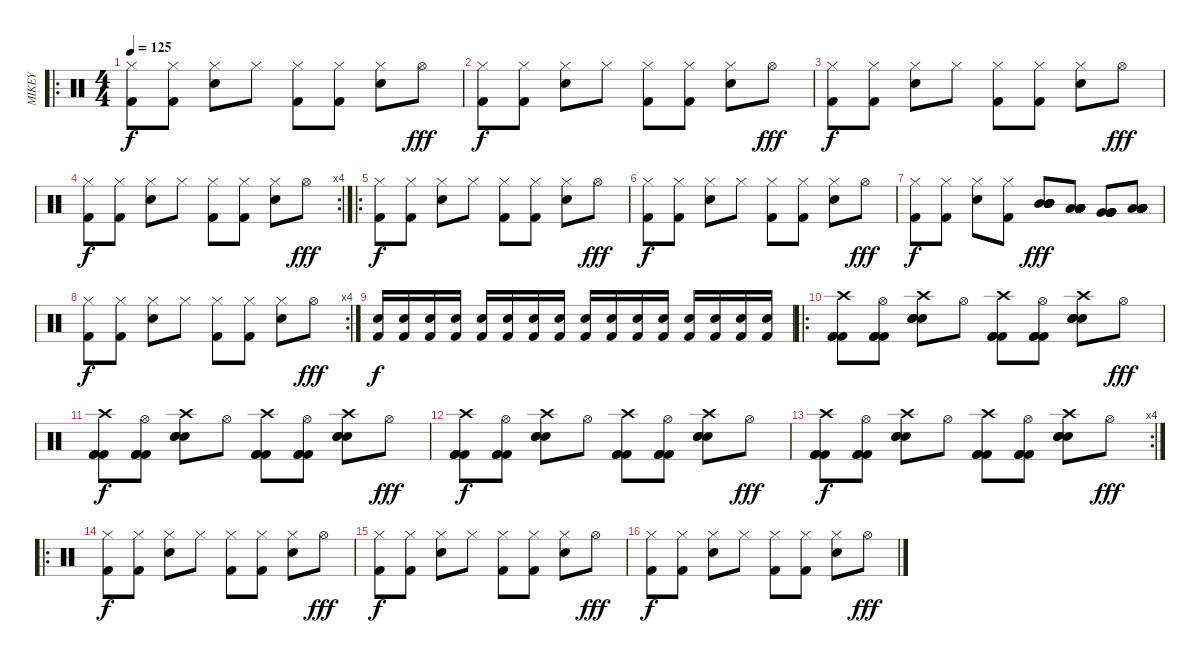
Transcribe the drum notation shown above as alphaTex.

\track ("MIKEY" "MIKEY") {instrument percussion}
\staff {score}
\articulation defaults
\ro
\ts (4 4)
\tempo 125
\clef neutral
\ks c
("Kick (hit) 2" "Hi-Hat (closed)").8{dy f} ("Kick (hit) 2" "Hi-Hat (closed)").8 ("Snare (hit) 2" "Hi-Hat (closed)").8 "Hi-Hat (closed)".8 ("Kick (hit) 2" "Hi-Hat (closed)").8 ("Kick (hit) 2" "Hi-Hat (closed)").8 ("Snare (hit) 2" "Hi-Hat (closed)").8 "Hi-Hat (open)".8{dy fff} |
("Kick (hit) 2" "Hi-Hat (closed)").8{dy f} ("Kick (hit) 2" "Hi-Hat (closed)").8 ("Snare (hit) 2" "Hi-Hat (closed)").8 "Hi-Hat (closed)".8 ("Kick (hit) 2" "Hi-Hat (closed)").8 ("Kick (hit) 2" "Hi-Hat (closed)").8 ("Snare (hit) 2" "Hi-Hat (closed)").8 "Hi-Hat (open)".8{dy fff} |
("Kick (hit) 2" "Hi-Hat (closed)").8{dy f} ("Kick (hit) 2" "Hi-Hat (closed)").8 ("Snare (hit) 2" "Hi-Hat (closed)").8 "Hi-Hat (closed)".8 ("Kick (hit) 2" "Hi-Hat (closed)").8 ("Kick (hit) 2" "Hi-Hat (closed)").8 ("Snare (hit) 2" "Hi-Hat (closed)").8 "Hi-Hat (open)".8{dy fff} |
\rc 4
("Kick (hit) 2" "Hi-Hat (closed)").8{dy f} ("Kick (hit) 2" "Hi-Hat (closed)").8 ("Snare (hit) 2" "Hi-Hat (closed)").8 "Hi-Hat (closed)".8 ("Kick (hit) 2" "Hi-Hat (closed)").8 ("Kick (hit) 2" "Hi-Hat (closed)").8 ("Snare (hit) 2" "Hi-Hat (closed)").8 "Hi-Hat (open)".8{dy fff} |
\ro
("Kick (hit) 2" "Hi-Hat (closed)").8{dy f} ("Kick (hit) 2" "Hi-Hat (closed)").8 ("Snare (hit) 2" "Hi-Hat (closed)").8 "Hi-Hat (closed)".8 ("Kick (hit) 2" "Hi-Hat (closed)").8 ("Kick (hit) 2" "Hi-Hat (closed)").8 ("Snare (hit) 2" "Hi-Hat (closed)").8 "Hi-Hat (open)".8{dy fff} |
("Kick (hit) 2" "Hi-Hat (closed)").8{dy f} ("Kick (hit) 2" "Hi-Hat (closed)").8 ("Snare (hit) 2" "Hi-Hat (closed)").8 "Hi-Hat (closed)".8 ("Kick (hit) 2" "Hi-Hat (closed)").8 ("Kick (hit) 2" "Hi-Hat (closed)").8 ("Snare (hit) 2" "Hi-Hat (closed)").8 "Hi-Hat (open)".8{dy fff} |
("Kick (hit) 2" "Hi-Hat (closed)").8{dy f} ("Kick (hit) 2" "Hi-Hat (closed)").8 ("Snare (hit) 2" "Hi-Hat (closed)").8 ("Kick (hit) 2" "Hi-Hat (closed)").8 ("Mid Tom (hit)" "Mid Tom (hit)" "Mid Tom (hit)" "Mid Tom (hit)" "Mid Tom (hit)" "Mid Tom (hit)").8{dy fff} ("Low Tom (hit)" "Low Tom (hit)" "Low Tom (hit)" "Low Tom (hit)" "Low Tom (hit)" "Low Tom (hit)").8 ("Very Low Tom (hit)" "Very Low Tom (hit)" "Very Low Tom (hit)" "Very Low Tom (hit)" "Very Low Tom (hit)" "Very Low Tom (hit)").8 ("Low Floor Tom (hit)" "Low Floor Tom (hit)" "Low Floor Tom (hit)" "Low Floor Tom (hit)" "Low Floor Tom (hit)" "Low Floor Tom (hit)").8 |
\rc 4
("Kick (hit) 2" "Hi-Hat (closed)").8{dy f} ("Kick (hit) 2" "Hi-Hat (closed)").8 ("Snare (hit) 2" "Hi-Hat (closed)").8 "Hi-Hat (closed)".8 ("Kick (hit) 2" "Hi-Hat (closed)").8 ("Kick (hit) 2" "Hi-Hat (closed)").8 ("Snare (hit) 2" "Hi-Hat (closed)").8 "Hi-Hat (open)".8{dy fff} |
("Kick (hit) 2" "Electric Snare (hit)").16{dy f} ("Kick (hit) 2" "Electric Snare (hit)").16 ("Kick (hit) 2" "Electric Snare (hit)").16 ("Kick (hit) 2" "Electric Snare (hit)").16 ("Kick (hit) 2" "Electric Snare (hit)").16 ("Kick (hit) 2" "Electric Snare (hit)").16 ("Kick (hit) 2" "Electric Snare (hit)").16 ("Kick (hit) 2" "Electric Snare (hit)").16 ("Kick (hit) 2" "Electric Snare (hit)").16 ("Kick (hit) 2" "Electric Snare (hit)").16 ("Kick (hit) 2" "Electric Snare (hit)").16 ("Kick (hit) 2" "Electric Snare (hit)").16 ("Kick (hit) 2" "Electric Snare (hit)").16 ("Kick (hit) 2" "Electric Snare (hit)").16 ("Kick (hit) 2" "Electric Snare (hit)").16 ("Kick (hit) 2" "Electric Snare (hit)").16 |
\ro
("Kick (hit) 2" "Kick (hit) 2" "Kick (hit) 2" "Crash high (hit)").8 ("Kick (hit) 2" "Kick (hit) 2" "Kick (hit) 2" "Hi-Hat (open)").8 ("Snare (hit) 2" "Snare (hit) 2" "Snare (hit) 2" "Crash high (hit)").8 "Hi-Hat (open)".8 ("Kick (hit) 2" "Kick (hit) 2" "Kick (hit) 2" "Crash high (hit)").8 ("Kick (hit) 2" "Kick (hit) 2" "Kick (hit) 2" "Hi-Hat (open)").8 ("Snare (hit) 2" "Snare (hit) 2" "Snare (hit) 2" "Crash high (hit)").8 "Hi-Hat (open)".8{dy fff} |
("Kick (hit) 2" "Kick (hit) 2" "Kick (hit) 2" "Crash high (hit)").8{dy f} ("Kick (hit) 2" "Kick (hit) 2" "Kick (hit) 2" "Hi-Hat (open)").8 ("Snare (hit) 2" "Snare (hit) 2" "Snare (hit) 2" "Crash high (hit)").8 "Hi-Hat (open)".8 ("Kick (hit) 2" "Kick (hit) 2" "Kick (hit) 2" "Crash high (hit)").8 ("Kick (hit) 2" "Kick (hit) 2" "Kick (hit) 2" "Hi-Hat (open)").8 ("Snare (hit) 2" "Snare (hit) 2" "Snare (hit) 2" "Crash high (hit)").8 "Hi-Hat (open)".8{dy fff} |
("Kick (hit) 2" "Kick (hit) 2" "Kick (hit) 2" "Crash high (hit)").8{dy f} ("Kick (hit) 2" "Kick (hit) 2" "Kick (hit) 2" "Hi-Hat (open)").8 ("Snare (hit) 2" "Snare (hit) 2" "Snare (hit) 2" "Crash high (hit)").8 "Hi-Hat (open)".8 ("Kick (hit) 2" "Kick (hit) 2" "Kick (hit) 2" "Crash high (hit)").8 ("Kick (hit) 2" "Kick (hit) 2" "Kick (hit) 2" "Hi-Hat (open)").8 ("Snare (hit) 2" "Snare (hit) 2" "Snare (hit) 2" "Crash high (hit)").8 "Hi-Hat (open)".8{dy fff} |
\rc 4
("Kick (hit) 2" "Kick (hit) 2" "Kick (hit) 2" "Crash high (hit)").8{dy f} ("Kick (hit) 2" "Kick (hit) 2" "Kick (hit) 2" "Hi-Hat (open)").8 ("Snare (hit) 2" "Snare (hit) 2" "Snare (hit) 2" "Crash high (hit)").8 "Hi-Hat (open)".8 ("Kick (hit) 2" "Kick (hit) 2" "Kick (hit) 2" "Crash high (hit)").8 ("Kick (hit) 2" "Kick (hit) 2" "Kick (hit) 2" "Hi-Hat (open)").8 ("Snare (hit) 2" "Snare (hit) 2" "Snare (hit) 2" "Crash high (hit)").8 "Hi-Hat (open)".8{dy fff} |
\ro
("Kick (hit) 2" "Hi-Hat (closed)").8{dy f} ("Kick (hit) 2" "Hi-Hat (closed)").8 ("Snare (hit) 2" "Hi-Hat (closed)").8 "Hi-Hat (closed)".8 ("Kick (hit) 2" "Hi-Hat (closed)").8 ("Kick (hit) 2" "Hi-Hat (closed)").8 ("Snare (hit) 2" "Hi-Hat (closed)").8 "Hi-Hat (open)".8{dy fff} |
("Kick (hit) 2" "Hi-Hat (closed)").8{dy f} ("Kick (hit) 2" "Hi-Hat (closed)").8 ("Snare (hit) 2" "Hi-Hat (closed)").8 "Hi-Hat (closed)".8 ("Kick (hit) 2" "Hi-Hat (closed)").8 ("Kick (hit) 2" "Hi-Hat (closed)").8 ("Snare (hit) 2" "Hi-Hat (closed)").8 "Hi-Hat (open)".8{dy fff} |
("Kick (hit) 2" "Hi-Hat (closed)").8{dy f} ("Kick (hit) 2" "Hi-Hat (closed)").8 ("Snare (hit) 2" "Hi-Hat (closed)").8 "Hi-Hat (closed)".8 ("Kick (hit) 2" "Hi-Hat (closed)").8 ("Kick (hit) 2" "Hi-Hat (closed)").8 ("Snare (hit) 2" "Hi-Hat (closed)").8 "Hi-Hat (open)".8{dy fff}
